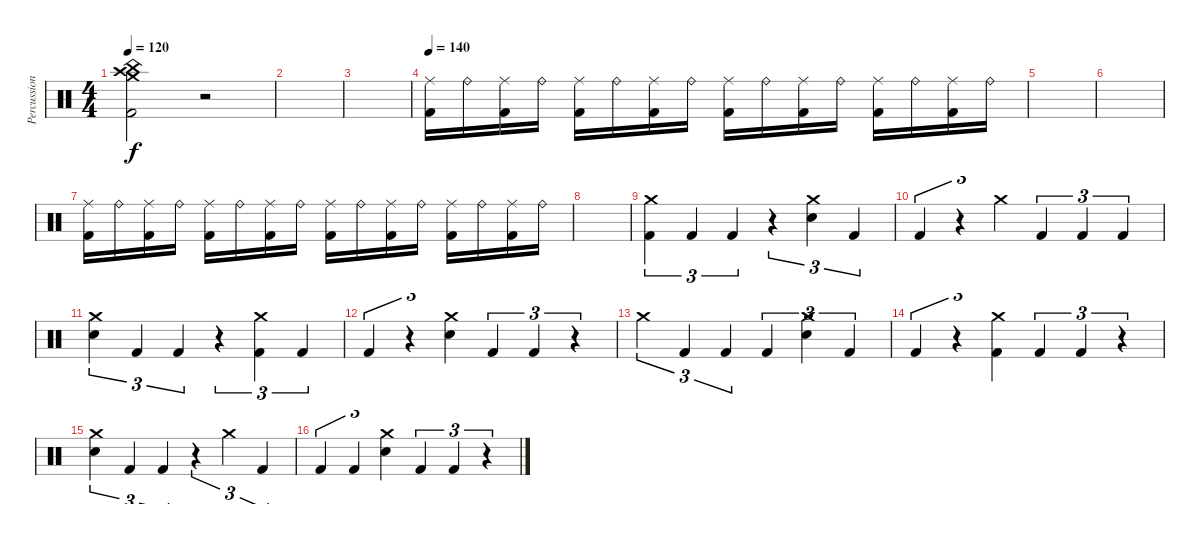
\track ("Percussion" "Percussion") {instrument percussion}
\staff {score}
\articulation defaults
\ts (4 4)
\tempo 120
\clef neutral
\ks c
("Crash medium (hit)" "Crash high (hit)" "China (hit)" "Kick (hit) 2").2{dy f} r.2 |
|
|
\tempo 140
("Ride (middle)" "Kick (hit) 2").16 "Ride (bell)".16 ("Ride (middle)" "Kick (hit) 2").16 "Ride (bell)".16 ("Ride (middle)" "Kick (hit) 2").16 "Ride (bell)".16 ("Ride (middle)" "Kick (hit) 2").16 "Ride (bell)".16 ("Ride (middle)" "Kick (hit) 2").16 "Ride (bell)".16 ("Ride (middle)" "Kick (hit) 2").16 "Ride (bell)".16 ("Ride (middle)" "Kick (hit) 2").16 "Ride (bell)".16 ("Ride (middle)" "Kick (hit) 2").16 "Ride (bell)".16 |
|
|
("Ride (middle)" "Kick (hit) 2").16 "Ride (bell)".16 ("Ride (middle)" "Kick (hit) 2").16 "Ride (bell)".16 ("Ride (middle)" "Kick (hit) 2").16 "Ride (bell)".16 ("Ride (middle)" "Kick (hit) 2").16 "Ride (bell)".16 ("Ride (middle)" "Kick (hit) 2").16 "Ride (bell)".16 ("Ride (middle)" "Kick (hit) 2").16 "Ride (bell)".16 ("Ride (middle)" "Kick (hit) 2").16 "Ride (bell)".16 ("Ride (middle)" "Kick (hit) 2").16 "Ride (bell)".16 |
|
("Crash medium (hit)" "Kick (hit) 2").4{tu (3 2)} "Kick (hit) 2".4{tu (3 2)} "Kick (hit) 2".4{tu (3 2)} r.4{tu (3 2)} ("Crash medium (hit)" "Electric Snare (hit)").4{tu (3 2)} "Kick (hit) 2".4{tu (3 2)} |
"Kick (hit) 2".4{tu (3 2)} r.4{tu (3 2)} "Crash medium (hit)".4{tu (3 2)} "Kick (hit) 2".4{tu (3 2)} "Kick (hit) 2".4{tu (3 2)} "Kick (hit) 2".4{tu (3 2)} |
("Crash medium (hit)" "Electric Snare (hit)").4{tu (3 2)} "Kick (hit) 2".4{tu (3 2)} "Kick (hit) 2".4{tu (3 2)} r.4{tu (3 2)} ("Crash medium (hit)" "Kick (hit) 2").4{tu (3 2)} "Kick (hit) 2".4{tu (3 2)} |
"Kick (hit) 2".4{tu (3 2)} r.4{tu (3 2)} ("Crash medium (hit)" "Electric Snare (hit)").4{tu (3 2)} "Kick (hit) 2".4{tu (3 2)} "Kick (hit) 2".4{tu (3 2)} r.4{tu (3 2)} |
"Crash medium (hit)".4{tu (3 2)} "Kick (hit) 2".4{tu (3 2)} "Kick (hit) 2".4{tu (3 2)} "Kick (hit) 2".4{tu (3 2)} ("Crash medium (hit)" "Electric Snare (hit)").4{tu (3 2)} "Kick (hit) 2".4{tu (3 2)} |
"Kick (hit) 2".4{tu (3 2)} r.4{tu (3 2)} ("Crash medium (hit)" "Kick (hit) 2").4{tu (3 2)} "Kick (hit) 2".4{tu (3 2)} "Kick (hit) 2".4{tu (3 2)} r.4{tu (3 2)} |
("Crash medium (hit)" "Electric Snare (hit)").4{tu (3 2)} "Kick (hit) 2".4{tu (3 2)} "Kick (hit) 2".4{tu (3 2)} r.4{tu (3 2)} "Crash medium (hit)".4{tu (3 2)} "Kick (hit) 2".4{tu (3 2)} |
"Kick (hit) 2".4{tu (3 2)} "Kick (hit) 2".4{tu (3 2)} ("Crash medium (hit)" "Electric Snare (hit)").4{tu (3 2)} "Kick (hit) 2".4{tu (3 2)} "Kick (hit) 2".4{tu (3 2)} r.4{tu (3 2)}
